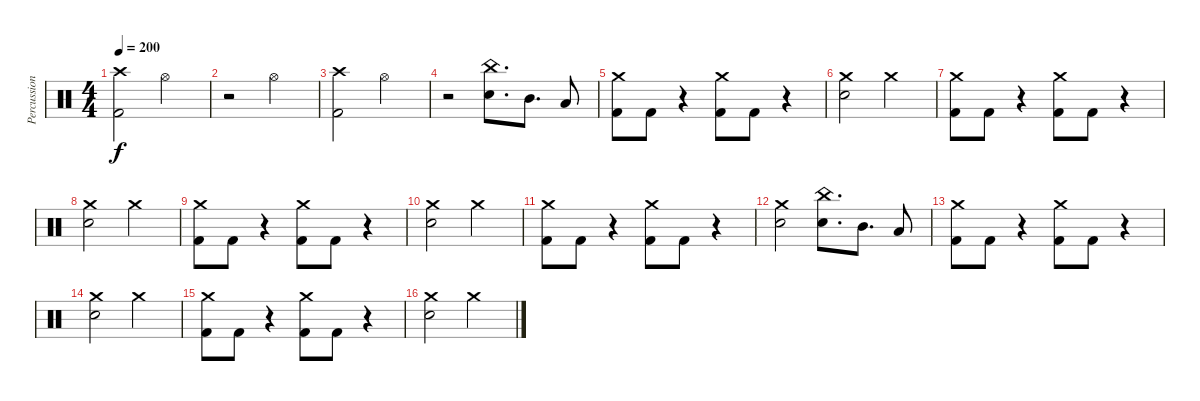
\track ("Percussion" "Percussion") {instrument percussion}
\staff {score}
\articulation defaults
\ts (4 4)
\tempo 200
\clef neutral
\ks c
("Crash high (hit)" "Kick (hit) 2").2{dy f} "Hi-Hat (open)".2 |
r.2 "Hi-Hat (open)".2 |
("Crash high (hit)" "Kick (hit) 2").2 "Hi-Hat (open)".2 |
r.2 ("China (hit)" "Electric Snare (hit)").8{d} "Mid Tom (hit)".8{d} "Low Tom (hit)".8 |
("Crash medium (hit)" "Kick (hit) 2").8 "Kick (hit) 2".8 r.4 ("Crash medium (hit)" "Kick (hit) 2").8 "Kick (hit) 2".8 r.4 |
("Crash medium (hit)" "Electric Snare (hit)").2 "Crash medium (hit)".2 |
("Crash medium (hit)" "Kick (hit) 2").8 "Kick (hit) 2".8 r.4 ("Crash medium (hit)" "Kick (hit) 2").8 "Kick (hit) 2".8 r.4 |
("Crash medium (hit)" "Electric Snare (hit)").2 "Crash medium (hit)".2 |
("Crash medium (hit)" "Kick (hit) 2").8 "Kick (hit) 2".8 r.4 ("Crash medium (hit)" "Kick (hit) 2").8 "Kick (hit) 2".8 r.4 |
("Crash medium (hit)" "Electric Snare (hit)").2 "Crash medium (hit)".2 |
("Crash medium (hit)" "Kick (hit) 2").8 "Kick (hit) 2".8 r.4 ("Crash medium (hit)" "Kick (hit) 2").8 "Kick (hit) 2".8 r.4 |
("Crash medium (hit)" "Electric Snare (hit)").2 ("China (hit)" "Electric Snare (hit)").8{d} "Mid Tom (hit)".8{d} "Low Tom (hit)".8 |
("Crash medium (hit)" "Kick (hit) 2").8 "Kick (hit) 2".8 r.4 ("Crash medium (hit)" "Kick (hit) 2").8 "Kick (hit) 2".8 r.4 |
("Crash medium (hit)" "Electric Snare (hit)").2 "Crash medium (hit)".2 |
("Crash medium (hit)" "Kick (hit) 2").8 "Kick (hit) 2".8 r.4 ("Crash medium (hit)" "Kick (hit) 2").8 "Kick (hit) 2".8 r.4 |
("Crash medium (hit)" "Electric Snare (hit)").2 "Crash medium (hit)".2
